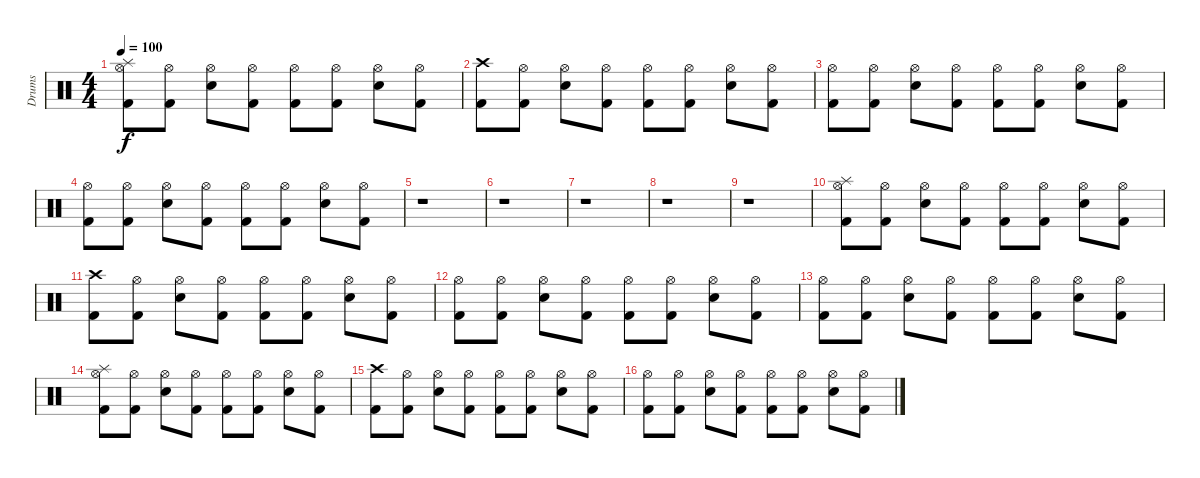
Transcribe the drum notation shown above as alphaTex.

\track ("Drums" "Drums") {instrument percussion}
\staff {score}
\articulation defaults
\ts (4 4)
\tempo 100
\clef neutral
\ks c
("Kick (hit) 2" "Splash (hit)" "Hi-Hat (open)").8{dy f} ("Kick (hit) 2" "Hi-Hat (open)").8 ("Electric Snare (hit)" "Hi-Hat (open)").8 ("Kick (hit) 2" "Hi-Hat (open)").8 ("Kick (hit) 2" "Hi-Hat (open)").8 ("Kick (hit) 2" "Hi-Hat (open)").8 ("Electric Snare (hit)" "Hi-Hat (open)").8 ("Kick (hit) 2" "Hi-Hat (open)").8 |
("Kick (hit) 2" "Crash high (hit)").8 ("Kick (hit) 2" "Hi-Hat (open)").8 ("Electric Snare (hit)" "Hi-Hat (open)").8 ("Kick (hit) 2" "Hi-Hat (open)").8 ("Kick (hit) 2" "Hi-Hat (open)").8 ("Kick (hit) 2" "Hi-Hat (open)").8 ("Electric Snare (hit)" "Hi-Hat (open)").8 ("Kick (hit) 2" "Hi-Hat (open)").8 |
("Kick (hit) 2" "Hi-Hat (open)").8 ("Kick (hit) 2" "Hi-Hat (open)").8 ("Electric Snare (hit)" "Hi-Hat (open)").8 ("Kick (hit) 2" "Hi-Hat (open)").8 ("Kick (hit) 2" "Hi-Hat (open)").8 ("Kick (hit) 2" "Hi-Hat (open)").8 ("Electric Snare (hit)" "Hi-Hat (open)").8 ("Kick (hit) 2" "Hi-Hat (open)").8 |
("Kick (hit) 2" "Hi-Hat (open)").8 ("Kick (hit) 2" "Hi-Hat (open)").8 ("Electric Snare (hit)" "Hi-Hat (open)").8 ("Kick (hit) 2" "Hi-Hat (open)").8 ("Kick (hit) 2" "Hi-Hat (open)").8 ("Kick (hit) 2" "Hi-Hat (open)").8 ("Electric Snare (hit)" "Hi-Hat (open)").8 ("Kick (hit) 2" "Hi-Hat (open)").8 |
r.1 |
r.1 |
r.1 |
r.1 |
r.1 |
("Kick (hit) 2" "Splash (hit)" "Hi-Hat (open)").8 ("Kick (hit) 2" "Hi-Hat (open)").8 ("Electric Snare (hit)" "Hi-Hat (open)").8 ("Kick (hit) 2" "Hi-Hat (open)").8 ("Kick (hit) 2" "Hi-Hat (open)").8 ("Kick (hit) 2" "Hi-Hat (open)").8 ("Electric Snare (hit)" "Hi-Hat (open)").8 ("Kick (hit) 2" "Hi-Hat (open)").8 |
("Kick (hit) 2" "Crash high (hit)").8 ("Kick (hit) 2" "Hi-Hat (open)").8 ("Electric Snare (hit)" "Hi-Hat (open)").8 ("Kick (hit) 2" "Hi-Hat (open)").8 ("Kick (hit) 2" "Hi-Hat (open)").8 ("Kick (hit) 2" "Hi-Hat (open)").8 ("Electric Snare (hit)" "Hi-Hat (open)").8 ("Kick (hit) 2" "Hi-Hat (open)").8 |
("Kick (hit) 2" "Hi-Hat (open)").8 ("Kick (hit) 2" "Hi-Hat (open)").8 ("Electric Snare (hit)" "Hi-Hat (open)").8 ("Kick (hit) 2" "Hi-Hat (open)").8 ("Kick (hit) 2" "Hi-Hat (open)").8 ("Kick (hit) 2" "Hi-Hat (open)").8 ("Electric Snare (hit)" "Hi-Hat (open)").8 ("Kick (hit) 2" "Hi-Hat (open)").8 |
("Kick (hit) 2" "Hi-Hat (open)").8 ("Kick (hit) 2" "Hi-Hat (open)").8 ("Electric Snare (hit)" "Hi-Hat (open)").8 ("Kick (hit) 2" "Hi-Hat (open)").8 ("Kick (hit) 2" "Hi-Hat (open)").8 ("Kick (hit) 2" "Hi-Hat (open)").8 ("Electric Snare (hit)" "Hi-Hat (open)").8 ("Kick (hit) 2" "Hi-Hat (open)").8 |
("Kick (hit) 2" "Splash (hit)" "Hi-Hat (open)").8 ("Kick (hit) 2" "Hi-Hat (open)").8 ("Electric Snare (hit)" "Hi-Hat (open)").8 ("Kick (hit) 2" "Hi-Hat (open)").8 ("Kick (hit) 2" "Hi-Hat (open)").8 ("Kick (hit) 2" "Hi-Hat (open)").8 ("Electric Snare (hit)" "Hi-Hat (open)").8 ("Kick (hit) 2" "Hi-Hat (open)").8 |
("Kick (hit) 2" "Crash high (hit)").8 ("Kick (hit) 2" "Hi-Hat (open)").8 ("Electric Snare (hit)" "Hi-Hat (open)").8 ("Kick (hit) 2" "Hi-Hat (open)").8 ("Kick (hit) 2" "Hi-Hat (open)").8 ("Kick (hit) 2" "Hi-Hat (open)").8 ("Electric Snare (hit)" "Hi-Hat (open)").8 ("Kick (hit) 2" "Hi-Hat (open)").8 |
("Kick (hit) 2" "Hi-Hat (open)").8 ("Kick (hit) 2" "Hi-Hat (open)").8 ("Electric Snare (hit)" "Hi-Hat (open)").8 ("Kick (hit) 2" "Hi-Hat (open)").8 ("Kick (hit) 2" "Hi-Hat (open)").8 ("Kick (hit) 2" "Hi-Hat (open)").8 ("Electric Snare (hit)" "Hi-Hat (open)").8 ("Kick (hit) 2" "Hi-Hat (open)").8
